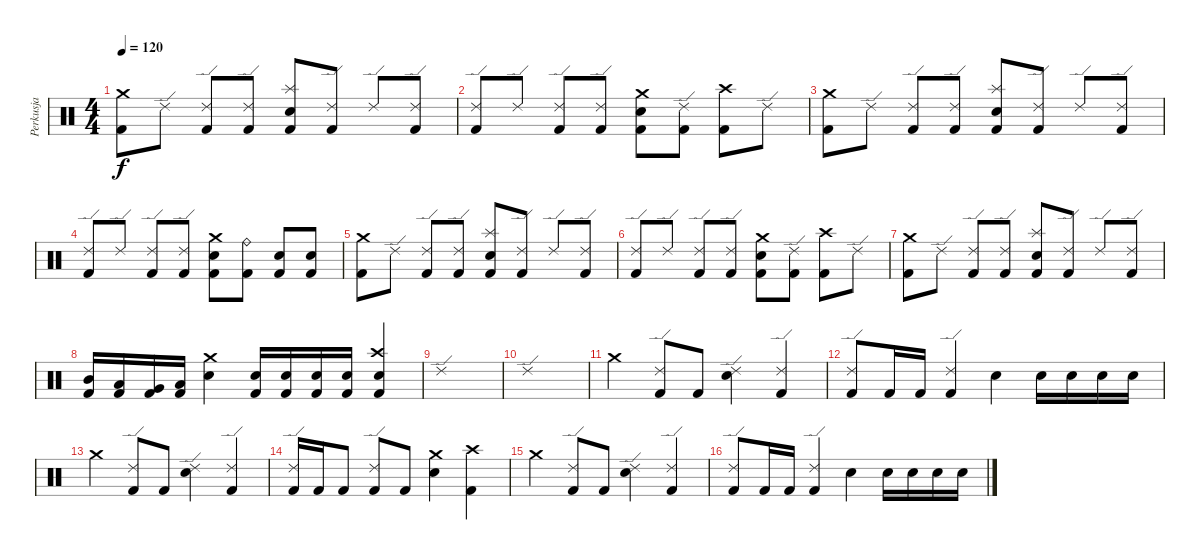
\track ("Perkusja" "Perkusja") {instrument percussion}
\staff {score}
\articulation defaults
\ts (4 4)
\tempo 120
\clef neutral
\ks c
("Crash medium (hit)" "Kick (hit) 2").8{dy f volume 16} "Ride (edge) 2".8 ("Ride (edge) 2" "Kick (hit) 2").8 ("Ride (edge) 2" "Kick (hit) 2").8 ("Splash (hit)" "Kick (hit) 2" "Electric Snare (hit)").8 ("Ride (edge) 2" "Kick (hit) 2").8 "Ride (edge) 2".8 ("Ride (edge) 2" "Kick (hit) 2").8 |
("Ride (edge) 2" "Kick (hit) 2").8 "Ride (edge) 2".8 ("Ride (edge) 2" "Kick (hit) 2").8 ("Ride (edge) 2" "Kick (hit) 2").8 ("Crash medium (hit)" "Kick (hit) 2" "Electric Snare (hit)").8 ("Ride (edge) 2" "Kick (hit) 2").8 ("Crash high (hit)" "Kick (hit) 2").8 "Ride (edge) 2".8 |
("Crash medium (hit)" "Kick (hit) 2").8 "Ride (edge) 2".8 ("Ride (edge) 2" "Kick (hit) 2").8 ("Ride (edge) 2" "Kick (hit) 2").8 ("Splash (hit)" "Kick (hit) 2" "Electric Snare (hit)").8 ("Ride (edge) 2" "Kick (hit) 2").8 "Ride (edge) 2".8 ("Ride (edge) 2" "Kick (hit) 2").8 |
("Ride (edge) 2" "Kick (hit) 2").8 "Ride (edge) 2".8 ("Ride (edge) 2" "Kick (hit) 2").8 ("Ride (edge) 2" "Kick (hit) 2").8 ("Crash medium (hit)" "Kick (hit) 2" "Electric Snare (hit)").8 ("Ride (bell)" "Kick (hit) 2").8 ("Electric Snare (hit)" "Kick (hit) 2").8 ("Electric Snare (hit)" "Kick (hit) 2").8 |
("Crash medium (hit)" "Kick (hit) 2").8{volume 16} "Ride (edge) 2".8 ("Ride (edge) 2" "Kick (hit) 2").8 ("Ride (edge) 2" "Kick (hit) 2").8 ("Splash (hit)" "Kick (hit) 2" "Electric Snare (hit)").8 ("Ride (edge) 2" "Kick (hit) 2").8 "Ride (edge) 2".8 ("Ride (edge) 2" "Kick (hit) 2").8 |
("Ride (edge) 2" "Kick (hit) 2").8 "Ride (edge) 2".8 ("Ride (edge) 2" "Kick (hit) 2").8 ("Ride (edge) 2" "Kick (hit) 2").8 ("Crash medium (hit)" "Kick (hit) 2" "Electric Snare (hit)").8 ("Ride (edge) 2" "Kick (hit) 2").8 ("Crash high (hit)" "Kick (hit) 2").8 "Ride (edge) 2".8 |
("Crash medium (hit)" "Kick (hit) 2").8 "Ride (edge) 2".8 ("Ride (edge) 2" "Kick (hit) 2").8 ("Ride (edge) 2" "Kick (hit) 2").8 ("Splash (hit)" "Kick (hit) 2" "Electric Snare (hit)").8 ("Ride (edge) 2" "Kick (hit) 2").8 "Ride (edge) 2".8 ("Ride (edge) 2" "Kick (hit) 2").8 |
("Mid Tom (hit)" "Kick (hit) 2").16 ("Low Tom (hit)" "Kick (hit) 2").16 ("Very Low Tom (hit)" "Kick (hit) 2").16 ("Low Floor Tom (hit)" "Kick (hit) 2").16 ("Crash medium (hit)" "Electric Snare (hit)").4 ("Electric Snare (hit)" "Kick (hit) 2").16 ("Electric Snare (hit)" "Kick (hit) 2").16 ("Electric Snare (hit)" "Kick (hit) 2").16 ("Electric Snare (hit)" "Kick (hit) 2").16 ("Crash high (hit)" "Snare (hit) 2" "Kick (hit) 2").4 |
"Ride (edge) 2".1 |
"Ride (edge) 2".1 |
"Crash medium (hit)".4 ("Ride (edge) 2" "Kick (hit) 2").8 "Kick (hit) 2".8 ("Ride (edge) 2" "Electric Snare (hit)").4 ("Ride (edge) 2" "Kick (hit) 2").4 |
("Ride (edge) 2" "Kick (hit) 2").8 "Kick (hit) 2".16 "Kick (hit) 2".16 ("Ride (edge) 2" "Kick (hit) 2").4 "Electric Snare (hit)".4 "Electric Snare (hit)".16 "Electric Snare (hit)".16 "Electric Snare (hit)".16 "Electric Snare (hit)".16 |
"Crash medium (hit)".4 ("Ride (edge) 2" "Kick (hit) 2").8 "Kick (hit) 2".8 ("Ride (edge) 2" "Electric Snare (hit)").4 ("Ride (edge) 2" "Kick (hit) 2").4 |
("Ride (edge) 2" "Kick (hit) 2").16 "Kick (hit) 2".16 "Kick (hit) 2".8 ("Ride (edge) 2" "Kick (hit) 2").8 "Kick (hit) 2".8 ("Crash medium (hit)" "Electric Snare (hit)").4 ("Crash high (hit)" "Kick (hit) 2").4 |
"Crash medium (hit)".4 ("Ride (edge) 2" "Kick (hit) 2").8 "Kick (hit) 2".8 ("Ride (edge) 2" "Electric Snare (hit)").4 ("Ride (edge) 2" "Kick (hit) 2").4 |
("Ride (edge) 2" "Kick (hit) 2").8 "Kick (hit) 2".16 "Kick (hit) 2".16 ("Ride (edge) 2" "Kick (hit) 2").4 "Electric Snare (hit)".4 "Electric Snare (hit)".16 "Electric Snare (hit)".16 "Electric Snare (hit)".16 "Electric Snare (hit)".16
